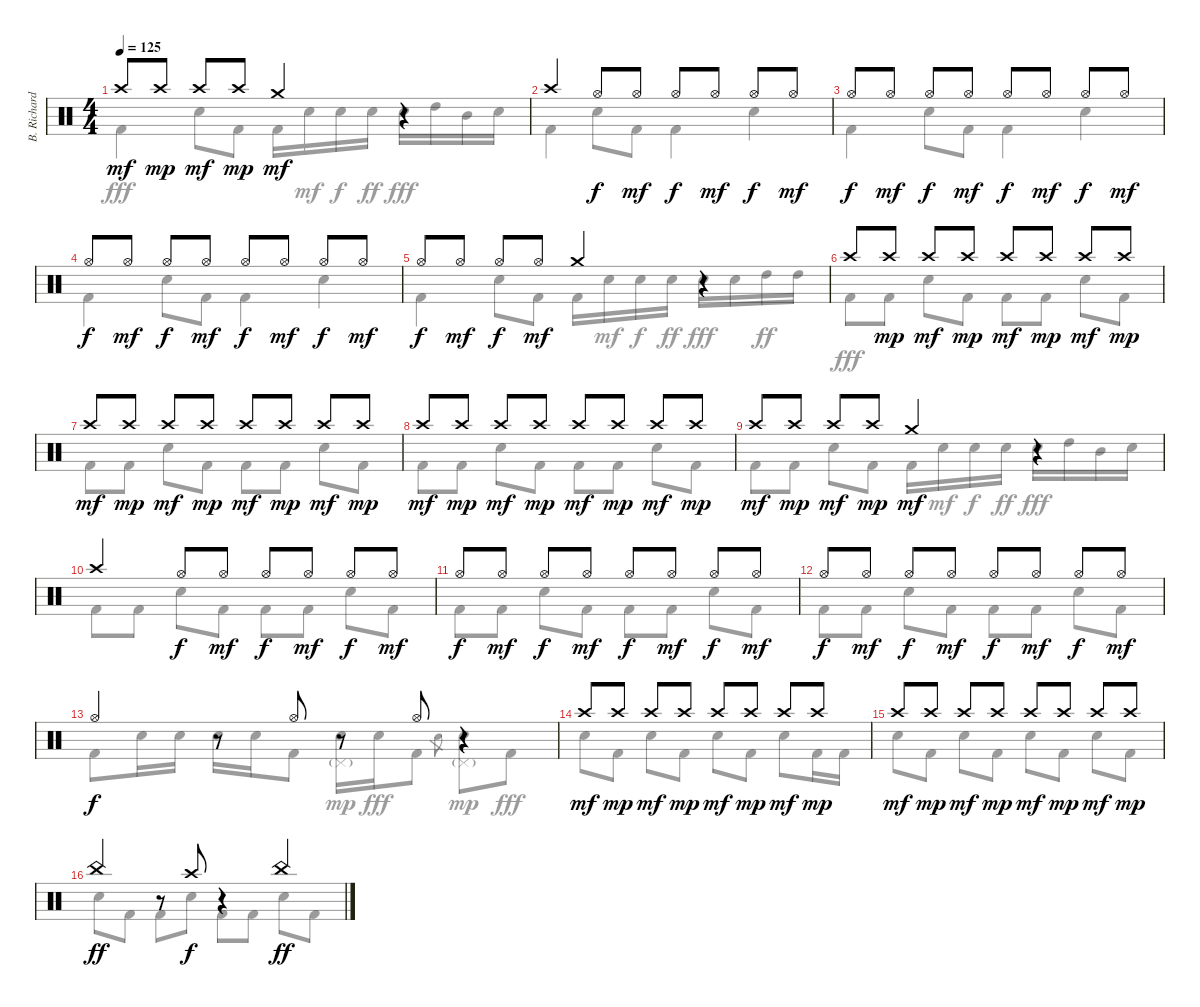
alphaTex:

\track ("B. Richardson Drums" "B. Richard") {instrument percussion}
\staff {score}
\articulation defaults
\voice
\ts (4 4)
\tempo 125
\clef neutral
\ks c "Crash high (hit)".8{dy mf} "Crash high (hit)".8{dy mp} "Crash high (hit)".8{dy mf} "Crash high (hit)".8{dy mp} "Crash medium (hit)".4{dy mf}
r.4 |
"Crash high (hit)".4 "Hi-Hat (open)".8{dy f} "Hi-Hat (open)".8{dy mf} "Hi-Hat (open)".8{dy f} "Hi-Hat (open)".8{dy mf} "Hi-Hat (open)".8{dy f} "Hi-Hat (open)".8{dy mf} |
"Hi-Hat (open)".8{dy f} "Hi-Hat (open)".8{dy mf} "Hi-Hat (open)".8{dy f} "Hi-Hat (open)".8{dy mf} "Hi-Hat (open)".8{dy f} "Hi-Hat (open)".8{dy mf} "Hi-Hat (open)".8{dy f} "Hi-Hat (open)".8{dy mf} |
"Hi-Hat (open)".8{dy f} "Hi-Hat (open)".8{dy mf} "Hi-Hat (open)".8{dy f} "Hi-Hat (open)".8{dy mf} "Hi-Hat (open)".8{dy f} "Hi-Hat (open)".8{dy mf} "Hi-Hat (open)".8{dy f} "Hi-Hat (open)".8{dy mf} |
"Hi-Hat (open)".8{dy f} "Hi-Hat (open)".8{dy mf} "Hi-Hat (open)".8{dy f} "Hi-Hat (open)".8{dy mf} "Crash medium (hit)".4 r.4 |
"Crash high (hit)".8 "Crash high (hit)".8{dy mp} "Crash high (hit)".8{dy mf} "Crash high (hit)".8{dy mp} "Crash high (hit)".8{dy mf} "Crash high (hit)".8{dy mp} "Crash high (hit)".8{dy mf} "Crash high (hit)".8{dy mp} |
"Crash high (hit)".8{dy mf} "Crash high (hit)".8{dy mp} "Crash high (hit)".8{dy mf} "Crash high (hit)".8{dy mp} "Crash high (hit)".8{dy mf} "Crash high (hit)".8{dy mp} "Crash high (hit)".8{dy mf} "Crash high (hit)".8{dy mp} |
"Crash high (hit)".8{dy mf} "Crash high (hit)".8{dy mp} "Crash high (hit)".8{dy mf} "Crash high (hit)".8{dy mp} "Crash high (hit)".8{dy mf} "Crash high (hit)".8{dy mp} "Crash high (hit)".8{dy mf} "Crash high (hit)".8{dy mp} |
"Crash high (hit)".8{dy mf} "Crash high (hit)".8{dy mp} "Crash high (hit)".8{dy mf} "Crash high (hit)".8{dy mp} "Crash medium (hit)".4{dy mf} r.4 |
"Crash high (hit)".4 "Hi-Hat (open)".8{dy f} "Hi-Hat (open)".8{dy mf} "Hi-Hat (open)".8{dy f} "Hi-Hat (open)".8{dy mf} "Hi-Hat (open)".8{dy f} "Hi-Hat (open)".8{dy mf} |
"Hi-Hat (open)".8{dy f} "Hi-Hat (open)".8{dy mf} "Hi-Hat (open)".8{dy f} "Hi-Hat (open)".8{dy mf} "Hi-Hat (open)".8{dy f} "Hi-Hat (open)".8{dy mf} "Hi-Hat (open)".8{dy f} "Hi-Hat (open)".8{dy mf} |
"Hi-Hat (open)".8{dy f} "Hi-Hat (open)".8{dy mf} "Hi-Hat (open)".8{dy f} "Hi-Hat (open)".8{dy mf} "Hi-Hat (open)".8{dy f} "Hi-Hat (open)".8{dy mf} "Hi-Hat (open)".8{dy f} "Hi-Hat (open)".8{dy mf} |
"Hi-Hat (open)".4{dy f} r.8 "Hi-Hat (open)".8 r.8 "Hi-Hat (open)".8 r.4 |
"Crash high (hit)".8{dy mf} "Crash high (hit)".8{dy mp} "Crash high (hit)".8{dy mf} "Crash high (hit)".8{dy mp} "Crash high (hit)".8{dy mf} "Crash high (hit)".8{dy mp} "Crash high (hit)".8{dy mf} "Crash high (hit)".8{dy mp} |
"Crash high (hit)".8{dy mf} "Crash high (hit)".8{dy mp} "Crash high (hit)".8{dy mf} "Crash high (hit)".8{dy mp} "Crash high (hit)".8{dy mf} "Crash high (hit)".8{dy mp} "Crash high (hit)".8{dy mf} "Crash high (hit)".8{dy mp} |
"China (hit)".4{dy ff} r.8 "Crash high (hit)".8{dy f} r.4 "China (hit)".4{dy ff}
\voice
\clef neutral
\ottava regular
\simile none
\ks c "Kick (hit) 2".4{dy fff} "Electric Snare (hit)".8 "Kick (hit) 2".8 "Kick (hit) 2".16 "Electric Snare (hit)".16{dy mf} "Electric Snare (hit)".16{dy f} "Electric Snare (hit)".16{dy ff} "Electric Snare (hit)".16{dy fff} "High Tom (hit)".16 "Mid Tom (hit)".16 "Electric Snare (hit)".16
|
"Kick (hit) 2".4 "Electric Snare (hit)".8 "Kick (hit) 2".8 "Kick (hit) 2".4 "Electric Snare (hit)".4 |
"Kick (hit) 2".4 "Electric Snare (hit)".8 "Kick (hit) 2".8 "Kick (hit) 2".4 "Electric Snare (hit)".4 |
"Kick (hit) 2".4 "Electric Snare (hit)".8 "Kick (hit) 2".8 "Kick (hit) 2".4 "Electric Snare (hit)".4 |
"Kick (hit) 2".4 "Electric Snare (hit)".8 "Kick (hit) 2".8 "Kick (hit) 2".16 "Electric Snare (hit)".16{dy mf} "Electric Snare (hit)".16{dy f} "Electric Snare (hit)".16{dy ff} "Electric Snare (hit)".16{dy fff} "Electric Snare (hit)".16 "High Tom (hit)".16{dy ff} "High Tom (hit)".16 |
"Kick (hit) 2".8{dy fff} "Kick (hit) 2".8 "Electric Snare (hit)".8 "Kick (hit) 2".8 "Kick (hit) 2".8 "Kick (hit) 2".8 "Electric Snare (hit)".8 "Kick (hit) 2".8 |
"Kick (hit) 2".8 "Kick (hit) 2".8 "Electric Snare (hit)".8 "Kick (hit) 2".8 "Kick (hit) 2".8 "Kick (hit) 2".8 "Electric Snare (hit)".8 "Kick (hit) 2".8 |
"Kick (hit) 2".8 "Kick (hit) 2".8 "Electric Snare (hit)".8 "Kick (hit) 2".8 "Kick (hit) 2".8 "Kick (hit) 2".8 "Electric Snare (hit)".8 "Kick (hit) 2".8 |
"Kick (hit) 2".8 "Kick (hit) 2".8 "Electric Snare (hit)".8 "Kick (hit) 2".8 "Kick (hit) 2".16 "Electric Snare (hit)".16{dy mf} "Electric Snare (hit)".16{dy f} "Electric Snare (hit)".16{dy ff} "Electric Snare (hit)".16{dy fff} "High Tom (hit)".16 "Mid Tom (hit)".16 "Electric Snare (hit)".16 |
"Kick (hit) 2".8 "Kick (hit) 2".8 "Electric Snare (hit)".8 "Kick (hit) 2".8 "Kick (hit) 2".8 "Kick (hit) 2".8 "Electric Snare (hit)".8 "Kick (hit) 2".8 |
"Kick (hit) 2".8 "Kick (hit) 2".8 "Electric Snare (hit)".8 "Kick (hit) 2".8 "Kick (hit) 2".8 "Kick (hit) 2".8 "Electric Snare (hit)".8 "Kick (hit) 2".8 |
"Kick (hit) 2".8 "Kick (hit) 2".8 "Electric Snare (hit)".8 "Kick (hit) 2".8 "Kick (hit) 2".8 "Kick (hit) 2".8 "Electric Snare (hit)".8 "Kick (hit) 2".8 |
"Kick (hit) 2".8 "Electric Snare (hit)".16 "Electric Snare (hit)".16 "Electric Snare (hit)".16 "Electric Snare (hit)".16 "Kick (hit) 2".8 ("Electric Snare (hit)" "Pedal Hi-Hat (hit)"{g}).16{dy mp} "Electric Snare (hit)".16{dy fff} "Kick (hit) 2".8 "Electric Snare (hit)".8{gr} ("Electric Snare (hit)" "Pedal Hi-Hat (hit)"{g}).8{dy mp} "Kick (hit) 2".8{dy fff} |
"Electric Snare (hit)".8 "Kick (hit) 2".8 "Electric Snare (hit)".8 "Kick (hit) 2".8 "Electric Snare (hit)".8 "Kick (hit) 2".8 "Electric Snare (hit)".8 "Kick (hit) 2".16 "Kick (hit) 2".16 |
"Electric Snare (hit)".8 "Kick (hit) 2".8 "Electric Snare (hit)".8 "Kick (hit) 2".8 "Electric Snare (hit)".8 "Kick (hit) 2".8 "Electric Snare (hit)".8 "Kick (hit) 2".8 |
"Electric Snare (hit)".8 "Kick (hit) 2".8 "Kick (hit) 2".8 "Electric Snare (hit)".8 "Kick (hit) 2".8 "Kick (hit) 2".8 "Electric Snare (hit)".8 "Kick (hit) 2".8
